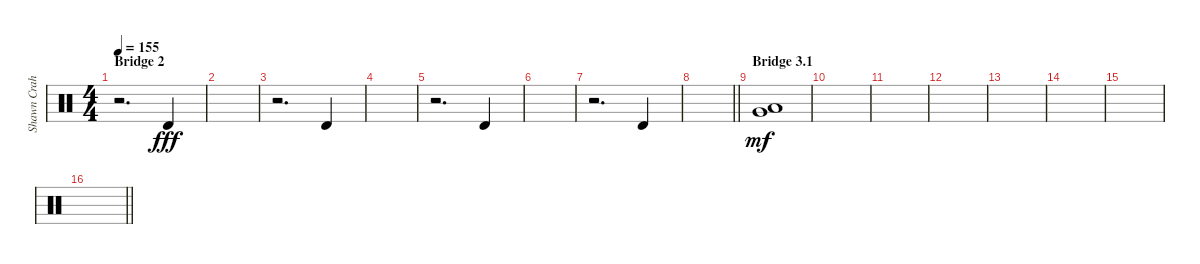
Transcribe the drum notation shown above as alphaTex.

\track ("Shawn Crahan" "Shawn Crah") {instrument percussion}
\staff {score}
\articulation defaults
\ts (4 4)
\section ("" "Bridge 2")
\tempo 155
\clef neutral
\ks c
r.2{d dy mf} "Timbale high (hit)".4{dy fff} |
|
r.2{d} "Timbale high (hit)".4 |
|
r.2{d} "Timbale high (hit)".4 |
|
r.2{d} "Timbale high (hit)".4 |
\barLineRight lightlight
|
\section ("" "Bridge 3.1")
("Very Low Tom (hit)" "Low Floor Tom (hit)").1{dy mf} |
|
|
|
|
|
|
\barLineRight lightlight
